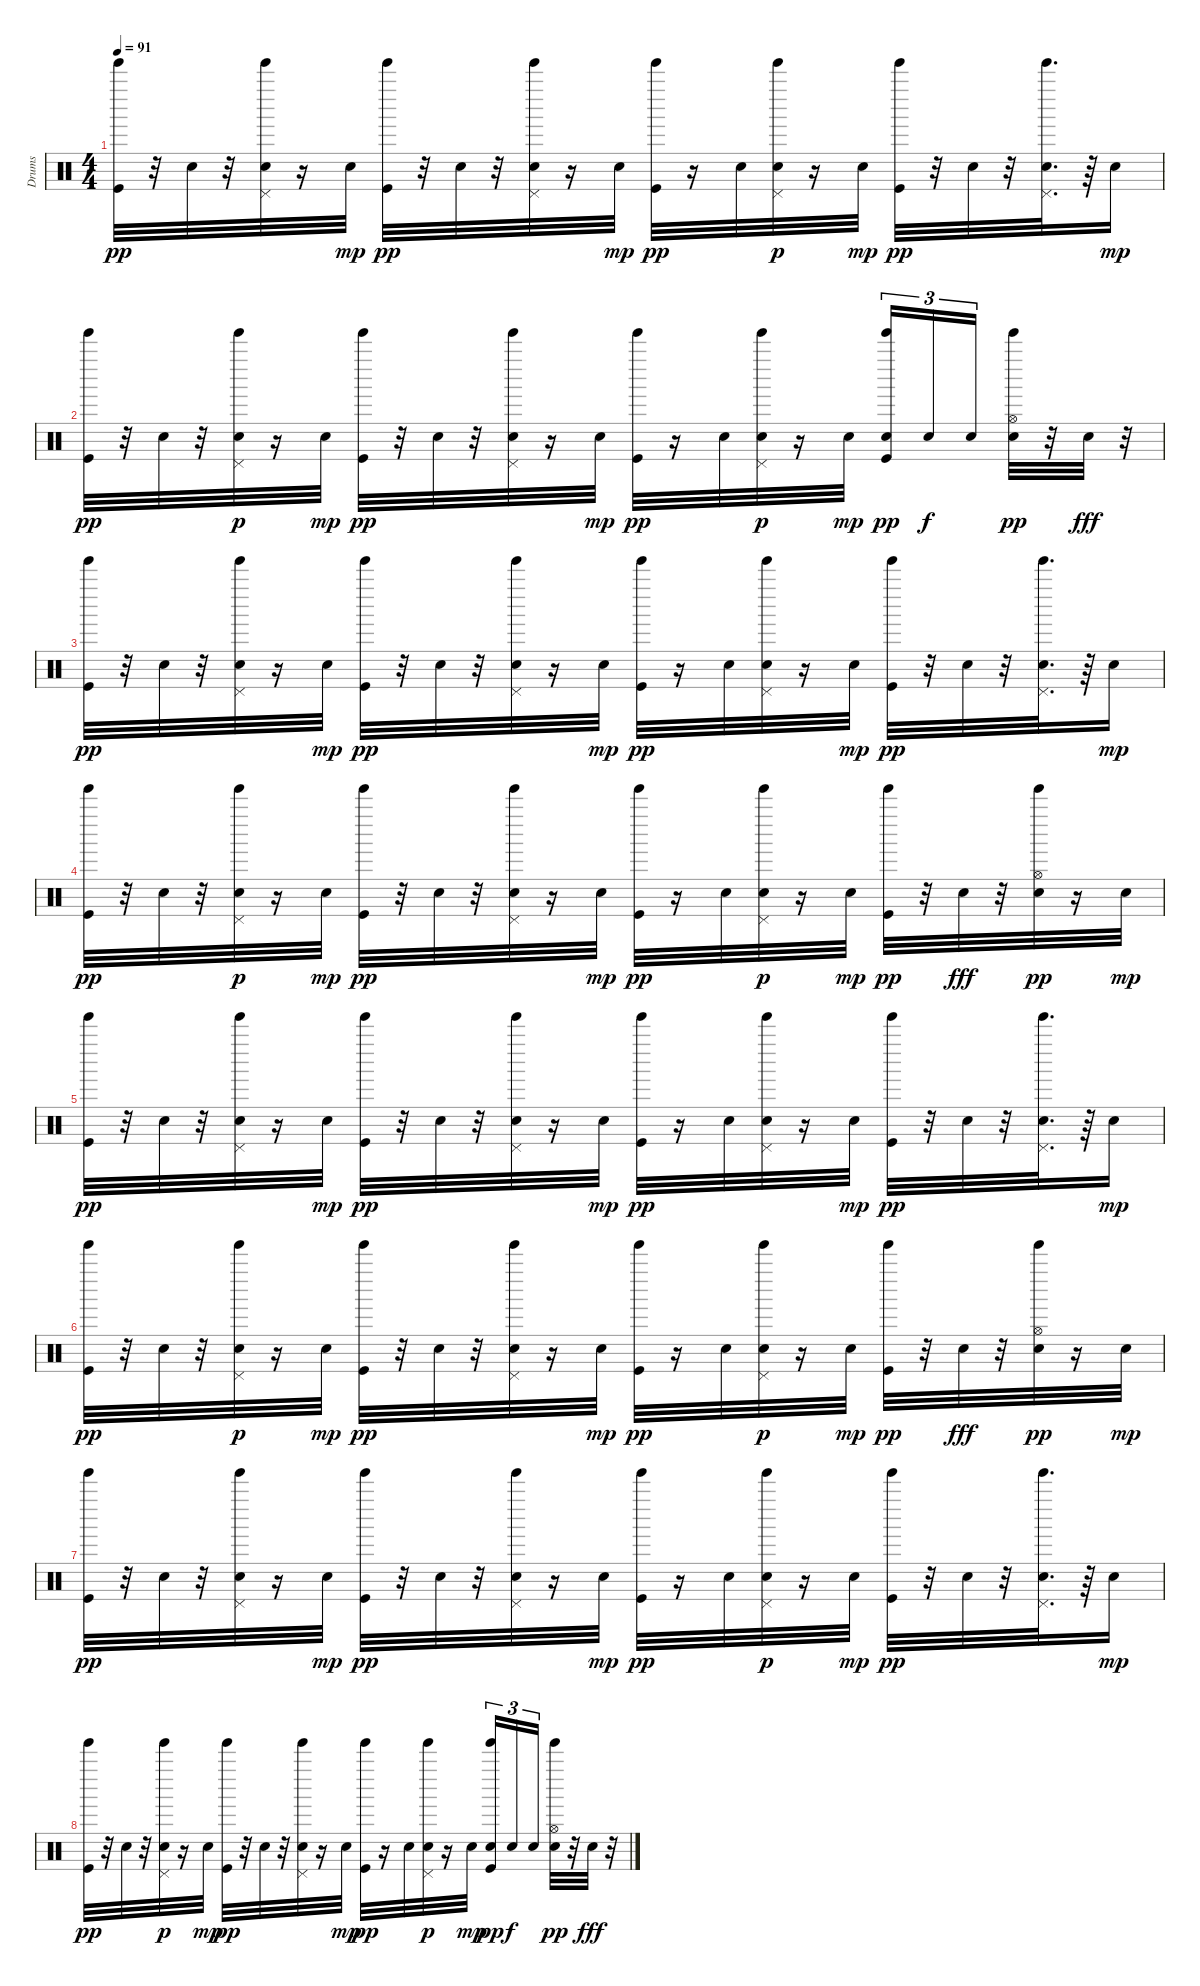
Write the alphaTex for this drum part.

\track ("Drums" "Drums") {instrument percussion}
\staff {score}
\articulation defaults
\ts (4 4)
\tempo 91
\clef neutral
\ks c
("Kick (hit)" "Tinkle Bell (hit)").32{dy pp} r.32 "Snare (hit) 2".32 r.32 ("Snare (hit) 2" "Pedal Hi-Hat (hit)" "Tinkle Bell (hit)").32 r.16 "Snare (hit) 2".32{dy mp} ("Kick (hit)" "Tinkle Bell (hit)").32{dy pp} r.32 "Snare (hit) 2".32 r.32 ("Snare (hit) 2" "Pedal Hi-Hat (hit)" "Tinkle Bell (hit)").32 r.16 "Snare (hit) 2".32{dy mp} ("Kick (hit)" "Tinkle Bell (hit)").32{dy pp} r.16 "Snare (hit) 2".32 ("Snare (hit) 2" "Pedal Hi-Hat (hit)" "Tinkle Bell (hit)").32{dy p} r.16 "Snare (hit) 2".32{dy mp} ("Kick (hit)" "Tinkle Bell (hit)").32{dy pp} r.32 "Snare (hit) 2".32 r.32 ("Snare (hit) 2" "Pedal Hi-Hat (hit)" "Tinkle Bell (hit)").32{d} r.64 "Snare (hit) 2".16{dy mp} |
("Kick (hit)" "Tinkle Bell (hit)").32{dy pp} r.32 "Snare (hit) 2".32 r.32 ("Snare (hit) 2" "Pedal Hi-Hat (hit)" "Tinkle Bell (hit)").32{dy p} r.16 "Snare (hit) 2".32{dy mp} ("Kick (hit)" "Tinkle Bell (hit)").32{dy pp} r.32 "Snare (hit) 2".32 r.32 ("Snare (hit) 2" "Pedal Hi-Hat (hit)" "Tinkle Bell (hit)").32 r.16 "Snare (hit) 2".32{dy mp} ("Kick (hit)" "Tinkle Bell (hit)").32{dy pp} r.16 "Snare (hit) 2".32 ("Snare (hit) 2" "Pedal Hi-Hat (hit)" "Tinkle Bell (hit)").32{dy p} r.16 "Snare (hit) 2".32{dy mp} ("Kick (hit)" "Snare (hit) 2" "Tinkle Bell (hit)").16{tu (3 2) dy pp} "Snare (hit) 2".16{tu (3 2) dy f} "Snare (hit) 2".16{tu (3 2) beam splitsecondary} ("Snare (hit) 2" "Hi-Hat (open)" "Tinkle Bell (hit)").32{dy pp} r.32 "Snare (hit) 2".32{dy fff} r.32 |
("Kick (hit)" "Tinkle Bell (hit)").32{dy pp} r.32 "Snare (hit) 2".32 r.32 ("Snare (hit) 2" "Pedal Hi-Hat (hit)" "Tinkle Bell (hit)").32 r.16 "Snare (hit) 2".32{dy mp} ("Kick (hit)" "Tinkle Bell (hit)").32{dy pp} r.32 "Snare (hit) 2".32 r.32 ("Snare (hit) 2" "Pedal Hi-Hat (hit)" "Tinkle Bell (hit)").32 r.16 "Snare (hit) 2".32{dy mp} ("Kick (hit)" "Tinkle Bell (hit)").32{dy pp} r.16 "Snare (hit) 2".32 ("Snare (hit) 2" "Pedal Hi-Hat (hit)" "Tinkle Bell (hit)").32 r.16 "Snare (hit) 2".32{dy mp} ("Kick (hit)" "Tinkle Bell (hit)").32{dy pp} r.32 "Snare (hit) 2".32 r.32 ("Snare (hit) 2" "Pedal Hi-Hat (hit)" "Tinkle Bell (hit)").32{d} r.64 "Snare (hit) 2".16{dy mp} |
("Kick (hit)" "Tinkle Bell (hit)").32{dy pp} r.32 "Snare (hit) 2".32 r.32 ("Snare (hit) 2" "Pedal Hi-Hat (hit)" "Tinkle Bell (hit)").32{dy p} r.16 "Snare (hit) 2".32{dy mp} ("Kick (hit)" "Tinkle Bell (hit)").32{dy pp} r.32 "Snare (hit) 2".32 r.32 ("Snare (hit) 2" "Pedal Hi-Hat (hit)" "Tinkle Bell (hit)").32 r.16 "Snare (hit) 2".32{dy mp} ("Kick (hit)" "Tinkle Bell (hit)").32{dy pp} r.16 "Snare (hit) 2".32 ("Snare (hit) 2" "Pedal Hi-Hat (hit)" "Tinkle Bell (hit)").32{dy p} r.16 "Snare (hit) 2".32{dy mp} ("Kick (hit)" "Tinkle Bell (hit)").32{dy pp} r.32 "Snare (hit) 2".32{dy fff} r.32 ("Snare (hit) 2" "Hi-Hat (open)" "Tinkle Bell (hit)").32{dy pp} r.16 "Snare (hit) 2".32{dy mp} |
("Kick (hit)" "Tinkle Bell (hit)").32{dy pp} r.32 "Snare (hit) 2".32 r.32 ("Snare (hit) 2" "Pedal Hi-Hat (hit)" "Tinkle Bell (hit)").32 r.16 "Snare (hit) 2".32{dy mp} ("Kick (hit)" "Tinkle Bell (hit)").32{dy pp} r.32 "Snare (hit) 2".32 r.32 ("Snare (hit) 2" "Pedal Hi-Hat (hit)" "Tinkle Bell (hit)").32 r.16 "Snare (hit) 2".32{dy mp} ("Kick (hit)" "Tinkle Bell (hit)").32{dy pp} r.16 "Snare (hit) 2".32 ("Snare (hit) 2" "Pedal Hi-Hat (hit)" "Tinkle Bell (hit)").32 r.16 "Snare (hit) 2".32{dy mp} ("Kick (hit)" "Tinkle Bell (hit)").32{dy pp} r.32 "Snare (hit) 2".32 r.32 ("Snare (hit) 2" "Pedal Hi-Hat (hit)" "Tinkle Bell (hit)").32{d} r.64 "Snare (hit) 2".16{dy mp} |
("Kick (hit)" "Tinkle Bell (hit)").32{dy pp} r.32 "Snare (hit) 2".32 r.32 ("Snare (hit) 2" "Pedal Hi-Hat (hit)" "Tinkle Bell (hit)").32{dy p} r.16 "Snare (hit) 2".32{dy mp} ("Kick (hit)" "Tinkle Bell (hit)").32{dy pp} r.32 "Snare (hit) 2".32 r.32 ("Snare (hit) 2" "Pedal Hi-Hat (hit)" "Tinkle Bell (hit)").32 r.16 "Snare (hit) 2".32{dy mp} ("Kick (hit)" "Tinkle Bell (hit)").32{dy pp} r.16 "Snare (hit) 2".32 ("Snare (hit) 2" "Pedal Hi-Hat (hit)" "Tinkle Bell (hit)").32{dy p} r.16 "Snare (hit) 2".32{dy mp} ("Kick (hit)" "Tinkle Bell (hit)").32{dy pp} r.32 "Snare (hit) 2".32{dy fff} r.32 ("Snare (hit) 2" "Hi-Hat (open)" "Tinkle Bell (hit)").32{dy pp} r.16 "Snare (hit) 2".32{dy mp} |
("Kick (hit)" "Tinkle Bell (hit)").32{dy pp} r.32 "Snare (hit) 2".32 r.32 ("Snare (hit) 2" "Pedal Hi-Hat (hit)" "Tinkle Bell (hit)").32 r.16 "Snare (hit) 2".32{dy mp} ("Kick (hit)" "Tinkle Bell (hit)").32{dy pp} r.32 "Snare (hit) 2".32 r.32 ("Snare (hit) 2" "Pedal Hi-Hat (hit)" "Tinkle Bell (hit)").32 r.16 "Snare (hit) 2".32{dy mp} ("Kick (hit)" "Tinkle Bell (hit)").32{dy pp} r.16 "Snare (hit) 2".32 ("Snare (hit) 2" "Pedal Hi-Hat (hit)" "Tinkle Bell (hit)").32{dy p} r.16 "Snare (hit) 2".32{dy mp} ("Kick (hit)" "Tinkle Bell (hit)").32{dy pp} r.32 "Snare (hit) 2".32 r.32 ("Snare (hit) 2" "Pedal Hi-Hat (hit)" "Tinkle Bell (hit)").32{d} r.64 "Snare (hit) 2".16{dy mp} |
("Kick (hit)" "Tinkle Bell (hit)").32{dy pp} r.32 "Snare (hit) 2".32 r.32 ("Snare (hit) 2" "Pedal Hi-Hat (hit)" "Tinkle Bell (hit)").32{dy p} r.16 "Snare (hit) 2".32{dy mp} ("Kick (hit)" "Tinkle Bell (hit)").32{dy pp} r.32 "Snare (hit) 2".32 r.32 ("Snare (hit) 2" "Pedal Hi-Hat (hit)" "Tinkle Bell (hit)").32 r.16 "Snare (hit) 2".32{dy mp} ("Kick (hit)" "Tinkle Bell (hit)").32{dy pp} r.16 "Snare (hit) 2".32 ("Snare (hit) 2" "Pedal Hi-Hat (hit)" "Tinkle Bell (hit)").32{dy p} r.16 "Snare (hit) 2".32{dy mp} ("Kick (hit)" "Snare (hit) 2" "Tinkle Bell (hit)").16{tu (3 2) dy pp} "Snare (hit) 2".16{tu (3 2) dy f} "Snare (hit) 2".16{tu (3 2) beam splitsecondary} ("Snare (hit) 2" "Hi-Hat (open)" "Tinkle Bell (hit)").32{dy pp} r.32 "Snare (hit) 2".32{dy fff} r.32
